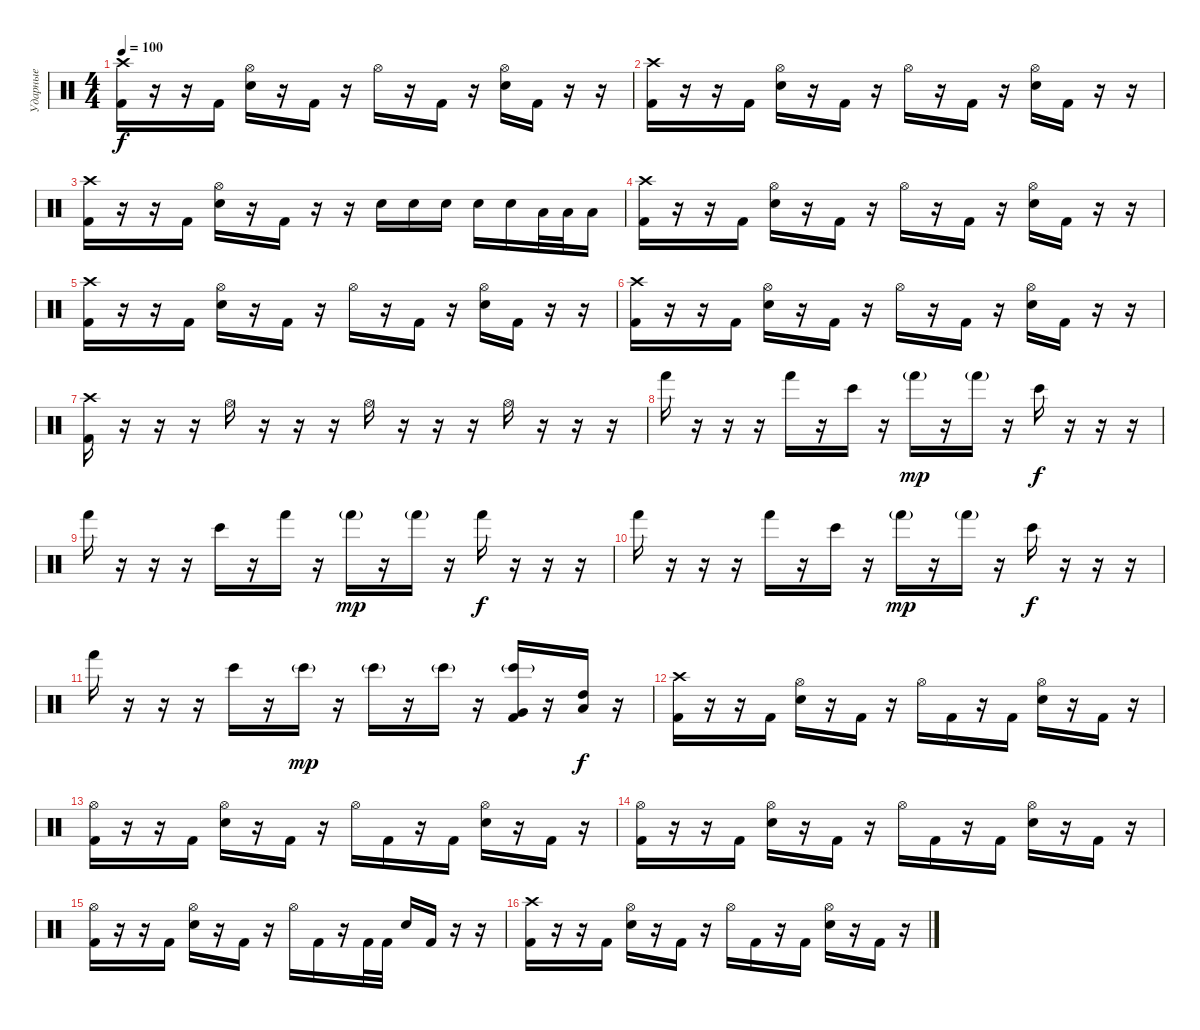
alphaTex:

\track ("Ударные" "Ударные") {instrument percussion}
\staff {score}
\articulation defaults
\ts (4 4)
\tempo 100
\clef neutral
\ks c
("Crash high (hit)" "Kick (hit) 2").16{dy f} r.16 r.16 "Kick (hit) 2".16 ("Hi-Hat (open)" "Electric Snare (hit)").16 r.16 "Kick (hit) 2".16 r.16 "Hi-Hat (open)".16 r.16 "Kick (hit) 2".16 r.16 ("Hi-Hat (open)" "Electric Snare (hit)").16 "Kick (hit) 2".16 r.16 r.16 |
("Crash high (hit)" "Kick (hit) 2").16 r.16 r.16 "Kick (hit) 2".16 ("Hi-Hat (open)" "Electric Snare (hit)").16 r.16 "Kick (hit) 2".16 r.16 "Hi-Hat (open)".16 r.16 "Kick (hit) 2".16 r.16 ("Hi-Hat (open)" "Electric Snare (hit)").16 "Kick (hit) 2".16 r.16 r.16 |
("Crash high (hit)" "Kick (hit) 2").16 r.16 r.16 "Kick (hit) 2".16 ("Hi-Hat (open)" "Electric Snare (hit)").16 r.16 "Kick (hit) 2".16 r.16 r.16 "Electric Snare (hit)".16 "Electric Snare (hit)".16 "Electric Snare (hit)".16 "Electric Snare (hit)".16 "Electric Snare (hit)".16 "Low Tom (hit)".32 "Low Tom (hit)".32 "Low Tom (hit)".16 |
("Crash high (hit)" "Kick (hit) 2").16 r.16 r.16 "Kick (hit) 2".16 ("Hi-Hat (open)" "Electric Snare (hit)").16 r.16 "Kick (hit) 2".16 r.16 "Hi-Hat (open)".16 r.16 "Kick (hit) 2".16 r.16 ("Hi-Hat (open)" "Electric Snare (hit)").16 "Kick (hit) 2".16 r.16 r.16 |
("Crash high (hit)" "Kick (hit) 2").16 r.16 r.16 "Kick (hit) 2".16 ("Hi-Hat (open)" "Electric Snare (hit)").16 r.16 "Kick (hit) 2".16 r.16 "Hi-Hat (open)".16 r.16 "Kick (hit) 2".16 r.16 ("Hi-Hat (open)" "Electric Snare (hit)").16 "Kick (hit) 2".16 r.16 r.16 |
("Crash high (hit)" "Kick (hit) 2").16 r.16 r.16 "Kick (hit) 2".16 ("Hi-Hat (open)" "Electric Snare (hit)").16 r.16 "Kick (hit) 2".16 r.16 "Hi-Hat (open)".16 r.16 "Kick (hit) 2".16 r.16 ("Hi-Hat (open)" "Electric Snare (hit)").16 "Kick (hit) 2".16 r.16 r.16 |
("Crash high (hit)" "Kick (hit) 2").16 r.16 r.16 r.16 "Hi-Hat (open)".16 r.16 r.16 r.16 "Hi-Hat (open)".16 r.16 r.16 r.16 "Hi-Hat (open)".16 r.16 r.16 r.16 |
"Hand (hit)".16 r.16 r.16 r.16 "Hand (hit)".16 r.16 "Bongo High (hit)".16 r.16 "Hand (hit)"{g}.16{dy mp} r.16 "Hand (hit)"{g}.16 r.16 "Bongo High (hit)".16{dy f} r.16 r.16 r.16 |
"Hand (hit)".16 r.16 r.16 r.16 "Bongo High (hit)".16 r.16 "Hand (hit)".16 r.16 "Hand (hit)"{g}.16{dy mp} r.16 "Hand (hit)"{g}.16 r.16 "Hand (hit)".16{dy f} r.16 r.16 r.16 |
"Hand (hit)".16 r.16 r.16 r.16 "Hand (hit)".16 r.16 "Bongo High (hit)".16 r.16 "Hand (hit)"{g}.16{dy mp} r.16 "Hand (hit)"{g}.16 r.16 "Bongo High (hit)".16{dy f} r.16 r.16 r.16 |
"Hand (hit)".16 r.16 r.16 r.16 "Bongo High (hit)".16 r.16 "Bongo High (hit)"{g}.16{dy mp} r.16 "Bongo High (hit)"{g}.16 r.16 "Bongo High (hit)"{g}.16 r.16 ("Bongo High (hit)"{g} "Very Low Tom (hit)" "Kick (hit) 2").16 r.16 ("Low Tom (hit)" "High Tom (hit)").16{dy f} r.16 |
("Crash high (hit)" "Kick (hit) 2").16 r.16 r.16 "Kick (hit) 2".16 ("Hi-Hat (open)" "Electric Snare (hit)").16 r.16 "Kick (hit) 2".16 r.16 "Hi-Hat (open)".16 "Kick (hit) 2".16 r.16 "Kick (hit) 2".16 ("Hi-Hat (open)" "Electric Snare (hit)").16 r.16 "Kick (hit) 2".16 r.16 |
("Hi-Hat (open)" "Kick (hit) 2").16 r.16 r.16 "Kick (hit) 2".16 ("Hi-Hat (open)" "Electric Snare (hit)").16 r.16 "Kick (hit) 2".16 r.16 "Hi-Hat (open)".16 "Kick (hit) 2".16 r.16 "Kick (hit) 2".16 ("Hi-Hat (open)" "Electric Snare (hit)").16 r.16 "Kick (hit) 2".16 r.16 |
("Hi-Hat (open)" "Kick (hit) 2").16 r.16 r.16 "Kick (hit) 2".16 ("Hi-Hat (open)" "Electric Snare (hit)").16 r.16 "Kick (hit) 2".16 r.16 "Hi-Hat (open)".16 "Kick (hit) 2".16 r.16 "Kick (hit) 2".16 ("Hi-Hat (open)" "Electric Snare (hit)").16 r.16 "Kick (hit) 2".16 r.16 |
("Hi-Hat (open)" "Kick (hit) 2").16 r.16 r.16 "Kick (hit) 2".16 ("Hi-Hat (open)" "Electric Snare (hit)").16 r.16 "Kick (hit) 2".16 r.16 "Hi-Hat (open)".16 "Kick (hit) 2".16 r.16 "Kick (hit) 2".32 "Kick (hit) 2".32 "Electric Snare (hit)".16 "Kick (hit) 2".16 r.16 r.16 |
("Crash high (hit)" "Kick (hit) 2").16 r.16 r.16 "Kick (hit) 2".16 ("Hi-Hat (open)" "Electric Snare (hit)").16 r.16 "Kick (hit) 2".16 r.16 "Hi-Hat (open)".16 "Kick (hit) 2".16 r.16 "Kick (hit) 2".16 ("Hi-Hat (open)" "Electric Snare (hit)").16 r.16 "Kick (hit) 2".16 r.16
